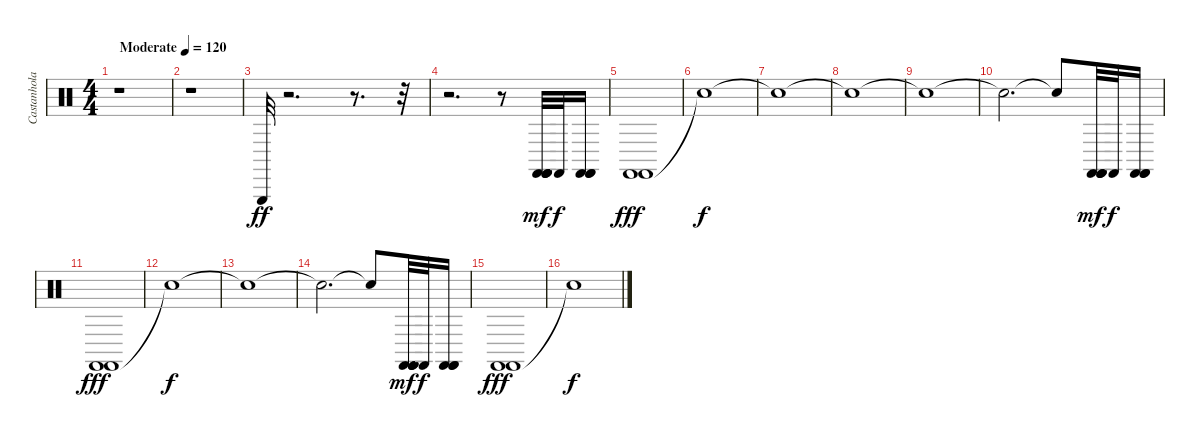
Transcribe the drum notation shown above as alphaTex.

\track ("Castanholas etc. ïåğêóññèÿ" "Castanhola") {instrument percussion}
\staff {score}
\articulation defaults
\ts (4 4)
\tempo (120 "Moderate")
\clef neutral
\ks c
r.1{dy ff} |
r.1 |
"Triangle (hit)".32 r.2{d} r.8{d} r.32 |
r.2{d} r.8 ("Castanets (hit)" "Castanets (hit)" "Castanets (hit)" "Castanets (hit)").32{dy mf} "Castanets (hit)".32{dy f} ("Castanets (hit)" "Castanets (hit)" "Castanets (hit)").16 |
("Castanets (hit)" "Castanets (hit)").1{dy fff} |
"Snare (hit)"{t}.1{dy f} |
"Snare (hit)"{t}.1 |
"Snare (hit)"{t}.1 |
"Snare (hit)"{t}.1 |
"Snare (hit)"{t}.2{d} "Snare (hit)"{t}.8 ("Castanets (hit)" "Castanets (hit)" "Castanets (hit)" "Castanets (hit)").32{dy mf} "Castanets (hit)".32{dy f} ("Castanets (hit)" "Castanets (hit)" "Castanets (hit)").16 |
("Castanets (hit)" "Castanets (hit)").1{dy fff} |
"Snare (hit)"{t}.1{dy f} |
"Snare (hit)"{t}.1 |
"Snare (hit)"{t}.2{d} "Snare (hit)"{t}.8 ("Castanets (hit)" "Castanets (hit)" "Castanets (hit)" "Castanets (hit)").32{dy mf} "Castanets (hit)".32{dy f} ("Castanets (hit)" "Castanets (hit)" "Castanets (hit)").16 |
("Castanets (hit)" "Castanets (hit)").1{dy fff} |
"Snare (hit)"{t}.1{dy f}
